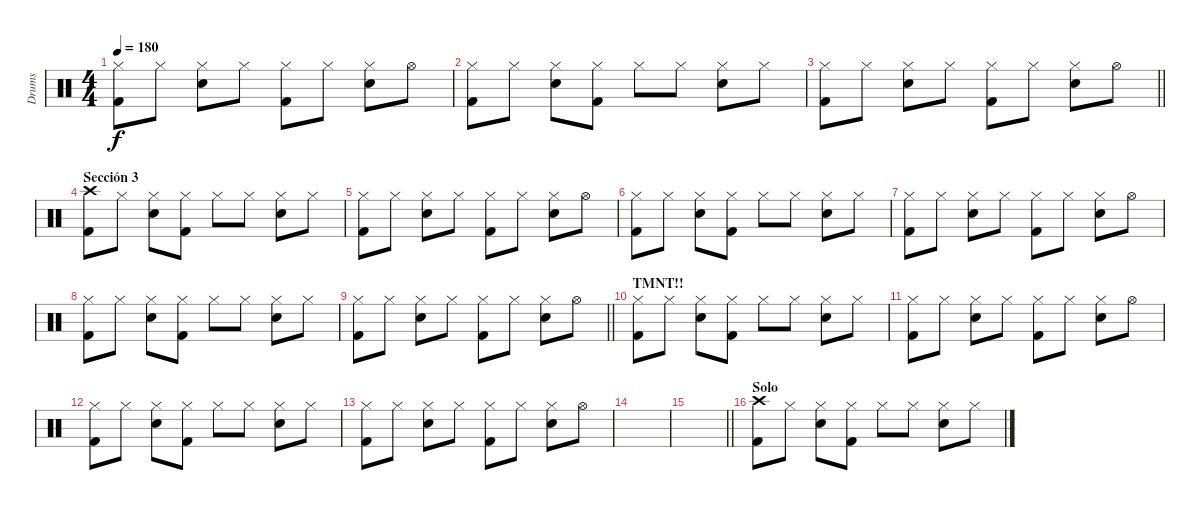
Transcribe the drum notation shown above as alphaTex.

\track ("Drums" "Drums") {instrument percussion}
\staff {score}
\articulation defaults
\ts (4 4)
\tempo 180
\clef neutral
\ks c
("Hi-Hat (closed)" "Kick (hit) 2").8{dy f} "Hi-Hat (closed)".8 ("Hi-Hat (closed)" "Snare (hit) 2").8 "Hi-Hat (closed)".8 ("Hi-Hat (closed)" "Kick (hit) 2").8 "Hi-Hat (closed)".8 ("Hi-Hat (closed)" "Snare (hit) 2").8 "Hi-Hat (open)".8 |
("Hi-Hat (closed)" "Kick (hit) 2").8 "Hi-Hat (closed)".8 ("Hi-Hat (closed)" "Snare (hit) 2").8 ("Hi-Hat (closed)" "Kick (hit) 2").8 "Hi-Hat (closed)".8 "Hi-Hat (closed)".8 ("Hi-Hat (closed)" "Snare (hit) 2").8 "Hi-Hat (closed)".8 |
\barLineRight lightlight
("Hi-Hat (closed)" "Kick (hit) 2").8 "Hi-Hat (closed)".8 ("Hi-Hat (closed)" "Snare (hit) 2").8 "Hi-Hat (closed)".8 ("Hi-Hat (closed)" "Kick (hit) 2").8 "Hi-Hat (closed)".8 ("Hi-Hat (closed)" "Snare (hit) 2").8 "Hi-Hat (open)".8 |
\section ("" "Sección 3")
("Crash high (hit)" "Kick (hit) 2").8 "Hi-Hat (closed)".8 ("Hi-Hat (closed)" "Snare (hit) 2").8 ("Hi-Hat (closed)" "Kick (hit) 2").8 "Hi-Hat (closed)".8 "Hi-Hat (closed)".8 ("Hi-Hat (closed)" "Snare (hit) 2").8 "Hi-Hat (closed)".8 |
("Hi-Hat (closed)" "Kick (hit) 2").8 "Hi-Hat (closed)".8 ("Hi-Hat (closed)" "Snare (hit) 2").8 "Hi-Hat (closed)".8 ("Hi-Hat (closed)" "Kick (hit) 2").8 "Hi-Hat (closed)".8 ("Hi-Hat (closed)" "Snare (hit) 2").8 "Hi-Hat (open)".8 |
("Hi-Hat (closed)" "Kick (hit) 2").8 "Hi-Hat (closed)".8 ("Hi-Hat (closed)" "Snare (hit) 2").8 ("Hi-Hat (closed)" "Kick (hit) 2").8 "Hi-Hat (closed)".8 "Hi-Hat (closed)".8 ("Hi-Hat (closed)" "Snare (hit) 2").8 "Hi-Hat (closed)".8 |
("Hi-Hat (closed)" "Kick (hit) 2").8 "Hi-Hat (closed)".8 ("Hi-Hat (closed)" "Snare (hit) 2").8 "Hi-Hat (closed)".8 ("Hi-Hat (closed)" "Kick (hit) 2").8 "Hi-Hat (closed)".8 ("Hi-Hat (closed)" "Snare (hit) 2").8 "Hi-Hat (open)".8 |
("Hi-Hat (closed)" "Kick (hit) 2").8 "Hi-Hat (closed)".8 ("Hi-Hat (closed)" "Snare (hit) 2").8 ("Hi-Hat (closed)" "Kick (hit) 2").8 "Hi-Hat (closed)".8 "Hi-Hat (closed)".8 ("Hi-Hat (closed)" "Snare (hit) 2").8 "Hi-Hat (closed)".8 |
\barLineRight lightlight
("Hi-Hat (closed)" "Kick (hit) 2").8 "Hi-Hat (closed)".8 ("Hi-Hat (closed)" "Snare (hit) 2").8 "Hi-Hat (closed)".8 ("Hi-Hat (closed)" "Kick (hit) 2").8 "Hi-Hat (closed)".8 ("Hi-Hat (closed)" "Snare (hit) 2").8 "Hi-Hat (open)".8 |
\section ("" "TMNT!!")
("Hi-Hat (closed)" "Kick (hit) 2").8 "Hi-Hat (closed)".8 ("Hi-Hat (closed)" "Snare (hit) 2").8 ("Hi-Hat (closed)" "Kick (hit) 2").8 "Hi-Hat (closed)".8 "Hi-Hat (closed)".8 ("Hi-Hat (closed)" "Snare (hit) 2").8 "Hi-Hat (closed)".8 |
("Hi-Hat (closed)" "Kick (hit) 2").8 "Hi-Hat (closed)".8 ("Hi-Hat (closed)" "Snare (hit) 2").8 "Hi-Hat (closed)".8 ("Hi-Hat (closed)" "Kick (hit) 2").8 "Hi-Hat (closed)".8 ("Hi-Hat (closed)" "Snare (hit) 2").8 "Hi-Hat (open)".8 |
("Hi-Hat (closed)" "Kick (hit) 2").8 "Hi-Hat (closed)".8 ("Hi-Hat (closed)" "Snare (hit) 2").8 ("Hi-Hat (closed)" "Kick (hit) 2").8 "Hi-Hat (closed)".8 "Hi-Hat (closed)".8 ("Hi-Hat (closed)" "Snare (hit) 2").8 "Hi-Hat (closed)".8 |
("Hi-Hat (closed)" "Kick (hit) 2").8 "Hi-Hat (closed)".8 ("Hi-Hat (closed)" "Snare (hit) 2").8 "Hi-Hat (closed)".8 ("Hi-Hat (closed)" "Kick (hit) 2").8 "Hi-Hat (closed)".8 ("Hi-Hat (closed)" "Snare (hit) 2").8 "Hi-Hat (open)".8 |
|
\barLineRight lightlight
|
\section ("" "Solo")
("Crash high (hit)" "Kick (hit) 2").8 "Hi-Hat (closed)".8 ("Hi-Hat (closed)" "Snare (hit) 2").8 ("Hi-Hat (closed)" "Kick (hit) 2").8 "Hi-Hat (closed)".8 "Hi-Hat (closed)".8 ("Hi-Hat (closed)" "Snare (hit) 2").8 "Hi-Hat (closed)".8
